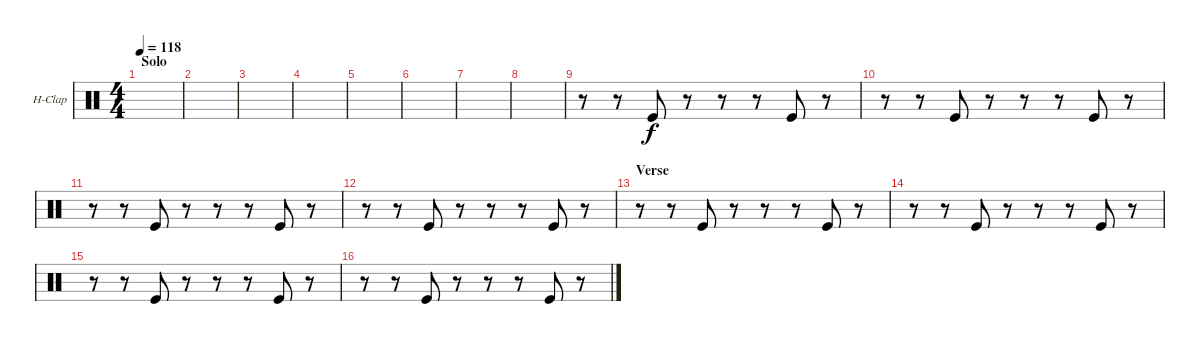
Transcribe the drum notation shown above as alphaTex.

\defaultSystemsLayout 4
\bracketExtendMode groupsimilarinstruments
\firstSystemTrackNameOrientation horizontal
\otherSystemsTrackNameOrientation horizontal
\track ("Hand Clap" "H-Clap") {instrument percussion}
\staff {score}
\articulation defaults
\ts (4 4)
\section ("" "Solo")
\tempo 118
\clef neutral
\ks c
|
|
|
|
|
|
|
|
r.8 r.8 "Kick (hit)".8 r.8 r.8 r.8 "Kick (hit)".8 r.8 |
r.8 r.8 "Kick (hit)".8 r.8 r.8 r.8 "Kick (hit)".8 r.8 |
r.8 r.8 "Kick (hit)".8 r.8 r.8 r.8 "Kick (hit)".8 r.8 |
r.8 r.8 "Kick (hit)".8 r.8 r.8 r.8 "Kick (hit)".8 r.8 |
\section ("" "Verse")
r.8 r.8 "Kick (hit)".8 r.8 r.8 r.8 "Kick (hit)".8 r.8 |
r.8 r.8 "Kick (hit)".8 r.8 r.8 r.8 "Kick (hit)".8 r.8 |
r.8 r.8 "Kick (hit)".8 r.8 r.8 r.8 "Kick (hit)".8 r.8 |
r.8 r.8 "Kick (hit)".8 r.8 r.8 r.8 "Kick (hit)".8 r.8
